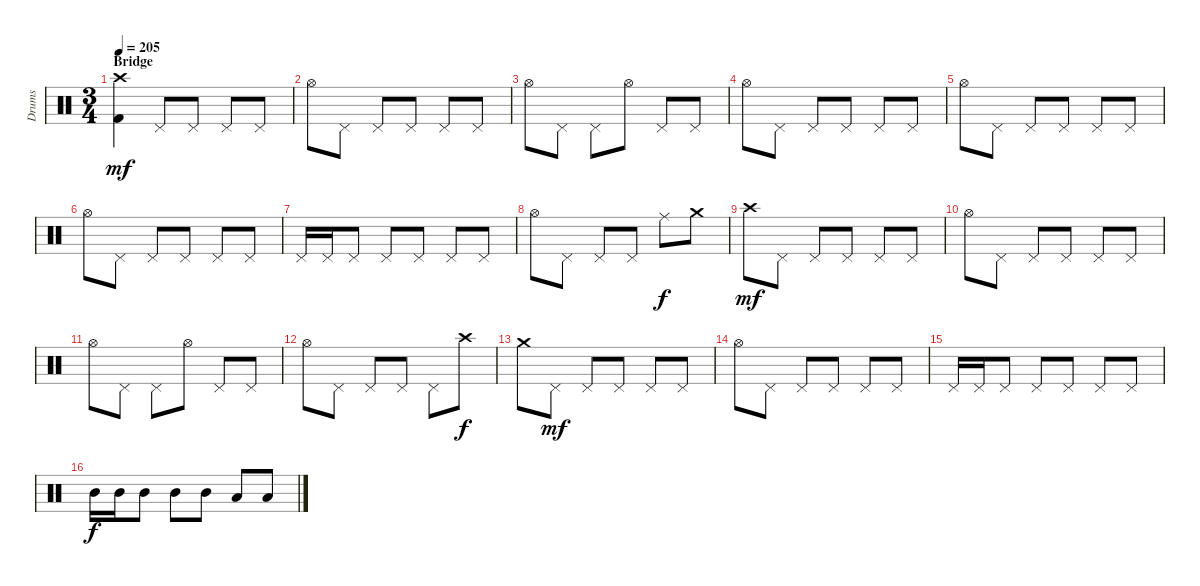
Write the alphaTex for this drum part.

\track ("Drums" "Drums") {instrument percussion}
\staff {score}
\articulation defaults
\ts (3 4)
\section ("" "Bridge")
\tempo 205
\clef neutral
\ks c
("Crash high (hit)" "Kick (hit) 2").4{dy mf} "Pedal Hi-Hat (hit)".8 "Pedal Hi-Hat (hit)".8 "Pedal Hi-Hat (hit)".8 "Pedal Hi-Hat (hit)".8 |
"Hi-Hat (open)".8 "Pedal Hi-Hat (hit)".8 "Pedal Hi-Hat (hit)".8 "Pedal Hi-Hat (hit)".8 "Pedal Hi-Hat (hit)".8 "Pedal Hi-Hat (hit)".8 |
"Hi-Hat (open)".8 "Pedal Hi-Hat (hit)".8 "Pedal Hi-Hat (hit)".8 "Hi-Hat (open)".8 "Pedal Hi-Hat (hit)".8 "Pedal Hi-Hat (hit)".8 |
"Hi-Hat (open)".8 "Pedal Hi-Hat (hit)".8 "Pedal Hi-Hat (hit)".8 "Pedal Hi-Hat (hit)".8 "Pedal Hi-Hat (hit)".8 "Pedal Hi-Hat (hit)".8 |
"Hi-Hat (open)".8 "Pedal Hi-Hat (hit)".8 "Pedal Hi-Hat (hit)".8 "Pedal Hi-Hat (hit)".8 "Pedal Hi-Hat (hit)".8 "Pedal Hi-Hat (hit)".8 |
"Hi-Hat (open)".8 "Pedal Hi-Hat (hit)".8 "Pedal Hi-Hat (hit)".8 "Pedal Hi-Hat (hit)".8 "Pedal Hi-Hat (hit)".8 "Pedal Hi-Hat (hit)".8 |
"Pedal Hi-Hat (hit)".16 "Pedal Hi-Hat (hit)".16 "Pedal Hi-Hat (hit)".8 "Pedal Hi-Hat (hit)".8 "Pedal Hi-Hat (hit)".8 "Pedal Hi-Hat (hit)".8 "Pedal Hi-Hat (hit)".8 |
"Hi-Hat (open)".8 "Pedal Hi-Hat (hit)".8 "Pedal Hi-Hat (hit)".8 "Pedal Hi-Hat (hit)".8 "Ride (middle)".8{dy f} "Crash medium (hit)".8 |
"Crash high (hit)".8{dy mf} "Pedal Hi-Hat (hit)".8 "Pedal Hi-Hat (hit)".8 "Pedal Hi-Hat (hit)".8 "Pedal Hi-Hat (hit)".8 "Pedal Hi-Hat (hit)".8 |
"Hi-Hat (open)".8 "Pedal Hi-Hat (hit)".8 "Pedal Hi-Hat (hit)".8 "Pedal Hi-Hat (hit)".8 "Pedal Hi-Hat (hit)".8 "Pedal Hi-Hat (hit)".8 |
"Hi-Hat (open)".8 "Pedal Hi-Hat (hit)".8 "Pedal Hi-Hat (hit)".8 "Hi-Hat (open)".8 "Pedal Hi-Hat (hit)".8 "Pedal Hi-Hat (hit)".8 |
"Hi-Hat (open)".8 "Pedal Hi-Hat (hit)".8 "Pedal Hi-Hat (hit)".8 "Pedal Hi-Hat (hit)".8 "Pedal Hi-Hat (hit)".8 "Crash high (hit)".8{dy f} |
"Crash medium (hit)".8 "Pedal Hi-Hat (hit)".8{dy mf} "Pedal Hi-Hat (hit)".8 "Pedal Hi-Hat (hit)".8 "Pedal Hi-Hat (hit)".8 "Pedal Hi-Hat (hit)".8 |
"Hi-Hat (open)".8 "Pedal Hi-Hat (hit)".8 "Pedal Hi-Hat (hit)".8 "Pedal Hi-Hat (hit)".8 "Pedal Hi-Hat (hit)".8 "Pedal Hi-Hat (hit)".8 |
"Pedal Hi-Hat (hit)".16 "Pedal Hi-Hat (hit)".16 "Pedal Hi-Hat (hit)".8 "Pedal Hi-Hat (hit)".8 "Pedal Hi-Hat (hit)".8 "Pedal Hi-Hat (hit)".8 "Pedal Hi-Hat (hit)".8 |
"Mid Tom (hit)".16{dy f} "Mid Tom (hit)".16 "Mid Tom (hit)".8 "Mid Tom (hit)".8 "Mid Tom (hit)".8 "Low Tom (hit)".8 "Low Tom (hit)".8
